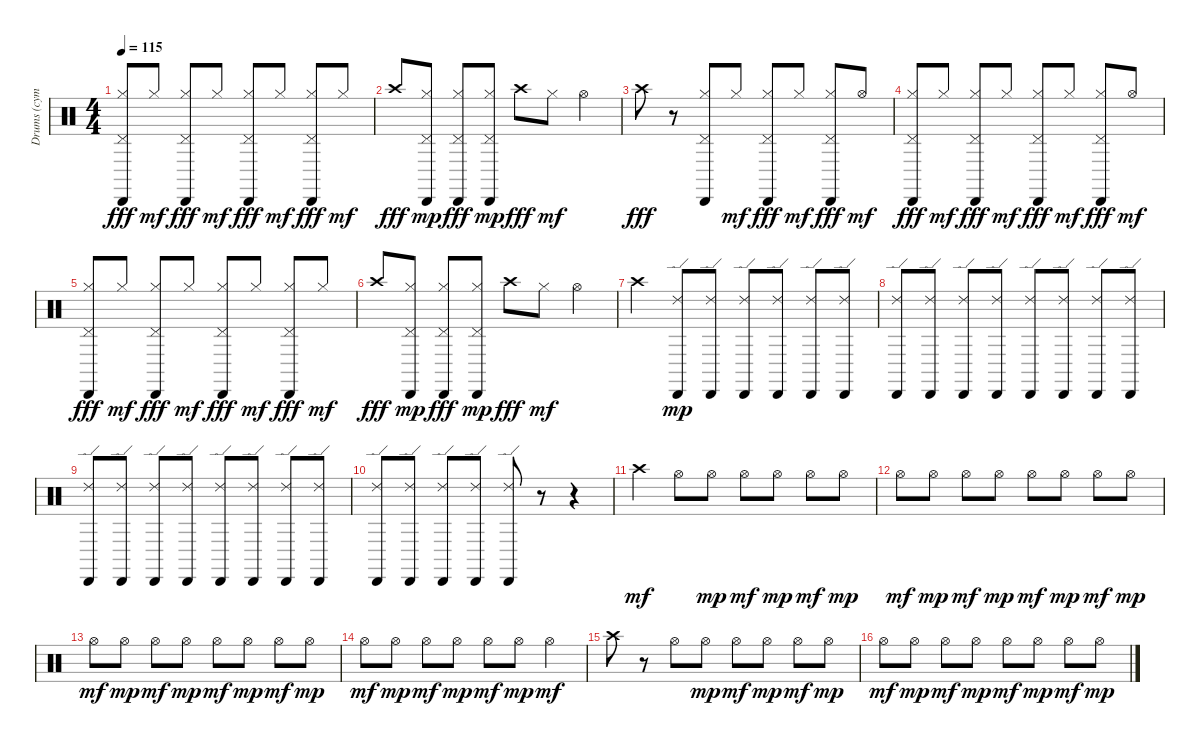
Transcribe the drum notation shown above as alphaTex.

\track ("Drums (cymbals)" "Drums (cym") {instrument percussion}
\staff {score}
\articulation defaults
\ts (4 4)
\tempo 115
\clef neutral
\ks c
("Hi-Hat (closed)" "Pedal Hi-Hat (hit)" "Cabasa (hit)").8{dy fff} "Hi-Hat (closed)".8{dy mf} ("Hi-Hat (closed)" "Pedal Hi-Hat (hit)" "Cabasa (hit)").8{dy fff} "Hi-Hat (closed)".8{dy mf} ("Hi-Hat (closed)" "Pedal Hi-Hat (hit)" "Cabasa (hit)").8{dy fff} "Hi-Hat (closed)".8{dy mf} ("Hi-Hat (closed)" "Pedal Hi-Hat (hit)" "Cabasa (hit)").8{dy fff} "Hi-Hat (closed)".8{dy mf} |
"Crash high (hit)".8{dy fff} ("Hi-Hat (closed)" "Pedal Hi-Hat (hit)" "Cabasa (hit)").8{dy mp} ("Hi-Hat (closed)" "Pedal Hi-Hat (hit)" "Cabasa (hit)").8{dy fff} ("Hi-Hat (closed)" "Pedal Hi-Hat (hit)" "Cabasa (hit)").8{dy mp} "Crash high (hit)".8{dy fff} "Hi-Hat (closed)".8{dy mf} "Hi-Hat (open)".4 |
"Crash high (hit)".8{dy fff} r.8 ("Hi-Hat (closed)" "Pedal Hi-Hat (hit)" "Cabasa (hit)").8 "Hi-Hat (closed)".8{dy mf} ("Hi-Hat (closed)" "Pedal Hi-Hat (hit)" "Cabasa (hit)").8{dy fff} "Hi-Hat (closed)".8{dy mf} ("Hi-Hat (closed)" "Pedal Hi-Hat (hit)" "Cabasa (hit)").8{dy fff} "Hi-Hat (open)".8{dy mf} |
("Hi-Hat (closed)" "Pedal Hi-Hat (hit)" "Cabasa (hit)").8{dy fff} "Hi-Hat (closed)".8{dy mf} ("Hi-Hat (closed)" "Pedal Hi-Hat (hit)" "Cabasa (hit)").8{dy fff} "Hi-Hat (closed)".8{dy mf} ("Hi-Hat (closed)" "Pedal Hi-Hat (hit)" "Cabasa (hit)").8{dy fff} "Hi-Hat (closed)".8{dy mf} ("Hi-Hat (closed)" "Pedal Hi-Hat (hit)" "Cabasa (hit)").8{dy fff} "Hi-Hat (open)".8{dy mf} |
("Hi-Hat (closed)" "Pedal Hi-Hat (hit)" "Cabasa (hit)").8{dy fff} "Hi-Hat (closed)".8{dy mf} ("Hi-Hat (closed)" "Pedal Hi-Hat (hit)" "Cabasa (hit)").8{dy fff} "Hi-Hat (closed)".8{dy mf} ("Hi-Hat (closed)" "Pedal Hi-Hat (hit)" "Cabasa (hit)").8{dy fff} "Hi-Hat (closed)".8{dy mf} ("Hi-Hat (closed)" "Pedal Hi-Hat (hit)" "Cabasa (hit)").8{dy fff} "Hi-Hat (closed)".8{dy mf} |
"Crash high (hit)".8{dy fff} ("Hi-Hat (closed)" "Pedal Hi-Hat (hit)" "Cabasa (hit)").8{dy mp} ("Hi-Hat (closed)" "Pedal Hi-Hat (hit)" "Cabasa (hit)").8{dy fff} ("Hi-Hat (closed)" "Pedal Hi-Hat (hit)" "Cabasa (hit)").8{dy mp} "Crash high (hit)".8{dy fff} "Hi-Hat (closed)".8{dy mf} "Hi-Hat (open)".4 |
"Crash high (hit)".4 ("Ride (edge) 2" "Cabasa (hit)").8{dy mp} ("Ride (edge) 2" "Cabasa (hit)").8 ("Ride (edge) 2" "Cabasa (hit)").8 ("Ride (edge) 2" "Cabasa (hit)").8 ("Ride (edge) 2" "Cabasa (hit)").8 ("Ride (edge) 2" "Cabasa (hit)").8 |
("Ride (edge) 2" "Cabasa (hit)").8 ("Ride (edge) 2" "Cabasa (hit)").8 ("Ride (edge) 2" "Cabasa (hit)").8 ("Ride (edge) 2" "Cabasa (hit)").8 ("Ride (edge) 2" "Cabasa (hit)").8 ("Ride (edge) 2" "Cabasa (hit)").8 ("Ride (edge) 2" "Cabasa (hit)").8 ("Ride (edge) 2" "Cabasa (hit)").8 |
("Ride (edge) 2" "Cabasa (hit)").8 ("Ride (edge) 2" "Cabasa (hit)").8 ("Ride (edge) 2" "Cabasa (hit)").8 ("Ride (edge) 2" "Cabasa (hit)").8 ("Ride (edge) 2" "Cabasa (hit)").8 ("Ride (edge) 2" "Cabasa (hit)").8 ("Ride (edge) 2" "Cabasa (hit)").8 ("Ride (edge) 2" "Cabasa (hit)").8 |
("Ride (edge) 2" "Cabasa (hit)").8 ("Ride (edge) 2" "Cabasa (hit)").8 ("Ride (edge) 2" "Cabasa (hit)").8 ("Ride (edge) 2" "Cabasa (hit)").8 ("Ride (edge) 2" "Cabasa (hit)").8 r.8 r.4 |
"Crash high (hit)".4{dy mf} "Hi-Hat (open)".8 "Hi-Hat (open)".8{dy mp} "Hi-Hat (open)".8{dy mf} "Hi-Hat (open)".8{dy mp} "Hi-Hat (open)".8{dy mf} "Hi-Hat (open)".8{dy mp} |
"Hi-Hat (open)".8{dy mf} "Hi-Hat (open)".8{dy mp} "Hi-Hat (open)".8{dy mf} "Hi-Hat (open)".8{dy mp} "Hi-Hat (open)".8{dy mf} "Hi-Hat (open)".8{dy mp} "Hi-Hat (open)".8{dy mf} "Hi-Hat (open)".8{dy mp} |
"Hi-Hat (open)".8{dy mf} "Hi-Hat (open)".8{dy mp} "Hi-Hat (open)".8{dy mf} "Hi-Hat (open)".8{dy mp} "Hi-Hat (open)".8{dy mf} "Hi-Hat (open)".8{dy mp} "Hi-Hat (open)".8{dy mf} "Hi-Hat (open)".8{dy mp} |
"Hi-Hat (open)".8{dy mf} "Hi-Hat (open)".8{dy mp} "Hi-Hat (open)".8{dy mf} "Hi-Hat (open)".8{dy mp} "Hi-Hat (open)".8{dy mf} "Hi-Hat (open)".8{dy mp} "Hi-Hat (open)".4{dy mf} |
"Crash high (hit)".8 r.8 "Hi-Hat (open)".8 "Hi-Hat (open)".8{dy mp} "Hi-Hat (open)".8{dy mf} "Hi-Hat (open)".8{dy mp} "Hi-Hat (open)".8{dy mf} "Hi-Hat (open)".8{dy mp} |
"Hi-Hat (open)".8{dy mf} "Hi-Hat (open)".8{dy mp} "Hi-Hat (open)".8{dy mf} "Hi-Hat (open)".8{dy mp} "Hi-Hat (open)".8{dy mf} "Hi-Hat (open)".8{dy mp} "Hi-Hat (open)".8{dy mf} "Hi-Hat (open)".8{dy mp}
